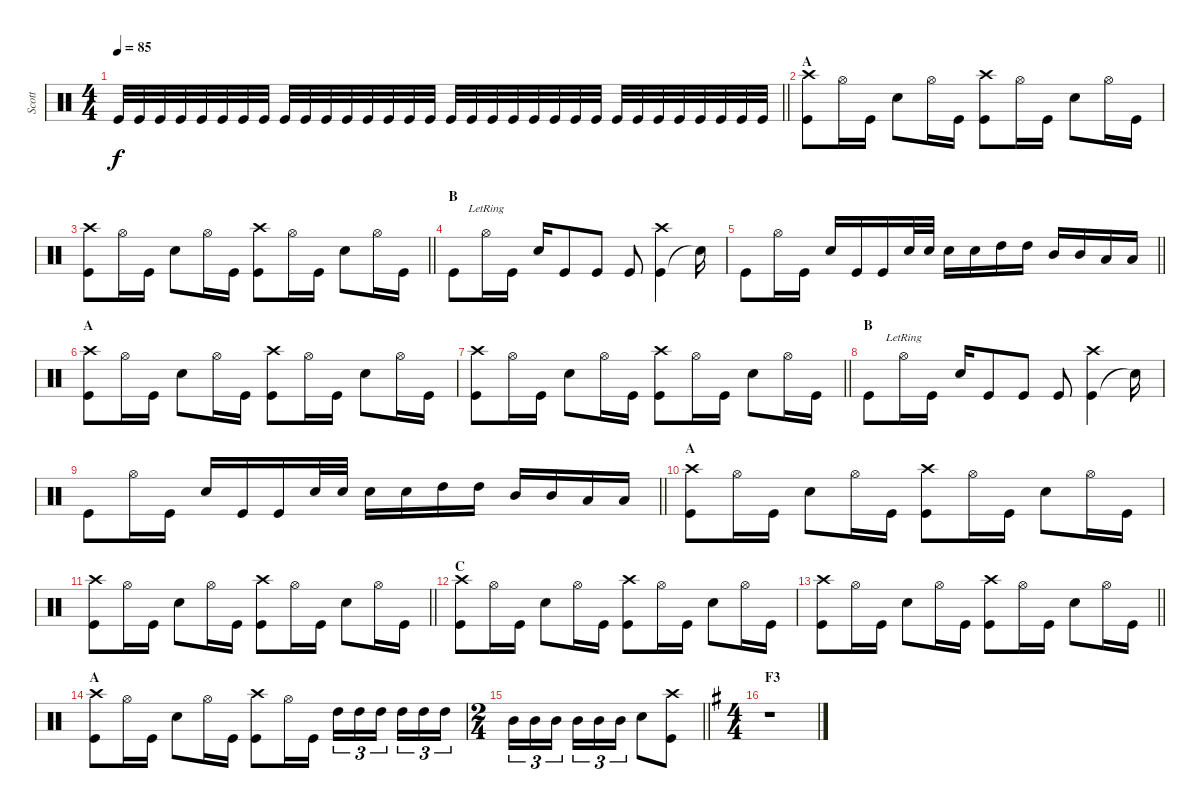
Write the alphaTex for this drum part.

\track ("Scott" "Scott") {instrument percussion}
\staff {score}
\articulation defaults
\ts (4 4)
\tempo 85
\clef neutral
\barLineRight lightlight
\ks c "Kick (hit)".32{dy f} "Kick (hit)".32 "Kick (hit)".32 "Kick (hit)".32 "Kick (hit)".32 "Kick (hit)".32 "Kick (hit)".32 "Kick (hit)".32 "Kick (hit)".32 "Kick (hit)".32 "Kick (hit)".32 "Kick (hit)".32 "Kick (hit)".32 "Kick (hit)".32 "Kick (hit)".32 "Kick (hit)".32 "Kick (hit)".32 "Kick (hit)".32 "Kick (hit)".32 "Kick (hit)".32 "Kick (hit)".32 "Kick (hit)".32 "Kick (hit)".32 "Kick (hit)".32 "Kick (hit)".32 "Kick (hit)".32 "Kick (hit)".32 "Kick (hit)".32 "Kick (hit)".32 "Kick (hit)".32 "Kick (hit)".32 "Kick (hit)".32
|
\section ("" "A")
("Kick (hit)" "Crash high (hit)").8 "Hi-Hat (open)".16 "Kick (hit)".16 "Snare (hit) 2".8 "Hi-Hat (open)".16 "Kick (hit)".16 ("Kick (hit)" "Crash high (hit)").8 "Hi-Hat (open)".16 "Kick (hit)".16 "Snare (hit) 2".8 "Hi-Hat (open)".16 "Kick (hit)".16 |
\barLineRight lightlight
("Kick (hit)" "Crash high (hit)").8 "Hi-Hat (open)".16 "Kick (hit)".16 "Snare (hit) 2".8 "Hi-Hat (open)".16 "Kick (hit)".16 ("Kick (hit)" "Crash high (hit)").8 "Hi-Hat (open)".16 "Kick (hit)".16 "Snare (hit) 2".8 "Hi-Hat (open)".16 "Kick (hit)".16 |
\section ("" "B")
"Kick (hit)".8 "Hi-Hat (open)"{lr}.16 "Kick (hit)".16 "Snare (hit) 2".16 "Kick (hit)".8 "Kick (hit)".8 "Kick (hit)".8 ("Kick (hit)" "Crash high (hit)").4 "Snare (hit)"{t}.16 |
\barLineRight lightlight "Kick (hit)".8 "Hi-Hat (open)".16 "Kick (hit)".16 "Snare (hit) 2".16 "Kick (hit)".16 "Kick (hit)".16 "Snare (hit) 2".32 "Snare (hit) 2".32 "Snare (hit) 2".16 "Snare (hit) 2".16 "High Tom (hit)".16 "High Tom (hit)".16 "Mid Tom (hit)".16 "Mid Tom (hit)".16 "Low Tom (hit)".16 "Low Tom (hit)".16
|
\section ("" "A")
("Kick (hit)" "Crash high (hit)").8 "Hi-Hat (open)".16 "Kick (hit)".16 "Snare (hit) 2".8 "Hi-Hat (open)".16 "Kick (hit)".16 ("Kick (hit)" "Crash high (hit)").8 "Hi-Hat (open)".16 "Kick (hit)".16 "Snare (hit) 2".8 "Hi-Hat (open)".16 "Kick (hit)".16 |
\barLineRight lightlight
("Kick (hit)" "Crash high (hit)").8 "Hi-Hat (open)".16 "Kick (hit)".16 "Snare (hit) 2".8 "Hi-Hat (open)".16 "Kick (hit)".16 ("Kick (hit)" "Crash high (hit)").8 "Hi-Hat (open)".16 "Kick (hit)".16 "Snare (hit) 2".8 "Hi-Hat (open)".16 "Kick (hit)".16 |
\section ("" "B")
"Kick (hit)".8 "Hi-Hat (open)"{lr}.16 "Kick (hit)".16 "Snare (hit) 2".16 "Kick (hit)".8 "Kick (hit)".8 "Kick (hit)".8 ("Kick (hit)" "Crash high (hit)").4 "Snare (hit)"{t}.16 |
\barLineRight lightlight "Kick (hit)".8 "Hi-Hat (open)".16 "Kick (hit)".16 "Snare (hit) 2".16 "Kick (hit)".16 "Kick (hit)".16 "Snare (hit) 2".32 "Snare (hit) 2".32 "Snare (hit) 2".16 "Snare (hit) 2".16 "High Tom (hit)".16 "High Tom (hit)".16 "Mid Tom (hit)".16 "Mid Tom (hit)".16 "Low Tom (hit)".16 "Low Tom (hit)".16
|
\section ("" "A")
("Kick (hit)" "Crash high (hit)").8 "Hi-Hat (open)".16 "Kick (hit)".16 "Snare (hit) 2".8 "Hi-Hat (open)".16 "Kick (hit)".16 ("Kick (hit)" "Crash high (hit)").8 "Hi-Hat (open)".16 "Kick (hit)".16 "Snare (hit) 2".8 "Hi-Hat (open)".16 "Kick (hit)".16 |
\barLineRight lightlight
("Kick (hit)" "Crash high (hit)").8 "Hi-Hat (open)".16 "Kick (hit)".16 "Snare (hit) 2".8 "Hi-Hat (open)".16 "Kick (hit)".16 ("Kick (hit)" "Crash high (hit)").8 "Hi-Hat (open)".16 "Kick (hit)".16 "Snare (hit) 2".8 "Hi-Hat (open)".16 "Kick (hit)".16 |
\section ("" "C")
("Kick (hit)" "Crash high (hit)").8 "Hi-Hat (open)".16 "Kick (hit)".16 "Snare (hit) 2".8 "Hi-Hat (open)".16 "Kick (hit)".16 ("Kick (hit)" "Crash high (hit)").8 "Hi-Hat (open)".16 "Kick (hit)".16 "Snare (hit) 2".8 "Hi-Hat (open)".16 "Kick (hit)".16 |
\barLineRight lightlight
("Kick (hit)" "Crash high (hit)").8 "Hi-Hat (open)".16 "Kick (hit)".16 "Snare (hit) 2".8 "Hi-Hat (open)".16 "Kick (hit)".16 ("Kick (hit)" "Crash high (hit)").8 "Hi-Hat (open)".16 "Kick (hit)".16 "Snare (hit) 2".8 "Hi-Hat (open)".16 "Kick (hit)".16 |
\section ("" "A")
("Kick (hit)" "Crash high (hit)").8 "Hi-Hat (open)".16 "Kick (hit)".16 "Snare (hit) 2".8 "Hi-Hat (open)".16 "Kick (hit)".16 ("Kick (hit)" "Crash high (hit)").8 "Hi-Hat (open)".16 "Kick (hit)".16 "High Tom (hit)".16{tu (3 2)} "High Tom (hit)".16{tu (3 2)} "High Tom (hit)".16{tu (3 2) beam splitsecondary} "High Tom (hit)".16{tu (3 2)} "High Tom (hit)".16{tu (3 2)} "High Tom (hit)".16{tu (3 2)} |
\ts (2 4)
\barLineRight lightlight "Mid Tom (hit)".16{tu (3 2)} "Mid Tom (hit)".16{tu (3 2)} "Mid Tom (hit)".16{tu (3 2) beam splitsecondary} "Mid Tom (hit)".16{tu (3 2)} "Mid Tom (hit)".16{tu (3 2)} "Mid Tom (hit)".16{tu (3 2)} "Snare (hit) 2".8
("Kick (hit)" "Crash high (hit)").8 |
\ts (4 4)
\section ("" "F3")
\ks g
r.1
